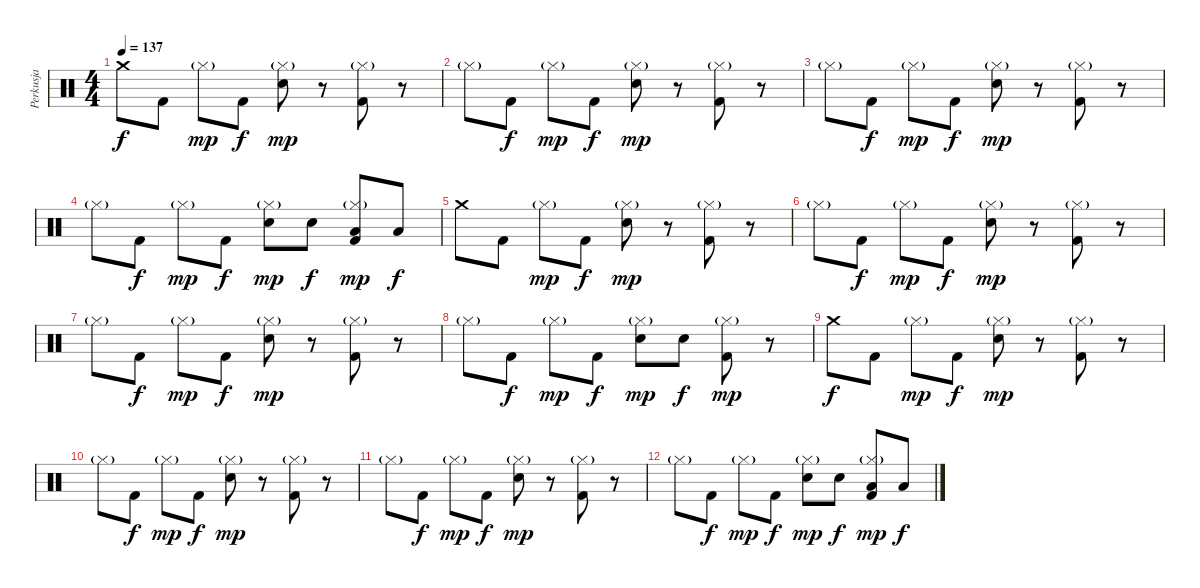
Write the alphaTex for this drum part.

\track ("Perkusja" "Perkusja") {instrument percussion}
\staff {score}
\articulation defaults
\ts (4 4)
\tempo 137
\clef neutral
\ks c "Crash medium (hit)".8{dy f} "Kick (hit) 2".8 "Hi-Hat (closed)"{g}.8{dy mp} "Kick (hit) 2".8{dy f}
("Hi-Hat (closed)"{g} "Snare (hit) 2").8{dy mp} r.8 ("Hi-Hat (closed)"{g} "Kick (hit) 2").8 r.8 |
"Hi-Hat (closed)"{g}.8 "Kick (hit) 2".8{dy f} "Hi-Hat (closed)"{g}.8{dy mp} "Kick (hit) 2".8{dy f} ("Hi-Hat (closed)"{g} "Snare (hit) 2").8{dy mp} r.8 ("Hi-Hat (closed)"{g} "Kick (hit) 2").8 r.8 |
"Hi-Hat (closed)"{g}.8 "Kick (hit) 2".8{dy f} "Hi-Hat (closed)"{g}.8{dy mp} "Kick (hit) 2".8{dy f} ("Hi-Hat (closed)"{g} "Snare (hit) 2").8{dy mp} r.8 ("Hi-Hat (closed)"{g} "Kick (hit) 2").8 r.8 |
"Hi-Hat (closed)"{g}.8 "Kick (hit) 2".8{dy f} "Hi-Hat (closed)"{g}.8{dy mp} "Kick (hit) 2".8{dy f} ("Hi-Hat (closed)"{g} "Snare (hit) 2").8{dy mp} "Snare (hit) 2".8{dy f} ("Hi-Hat (closed)"{g} "Low Tom (hit)" "Kick (hit) 2").8{dy mp} "Low Tom (hit)".8{dy f} |
"Crash medium (hit)".8 "Kick (hit) 2".8 "Hi-Hat (closed)"{g}.8{dy mp} "Kick (hit) 2".8{dy f} ("Hi-Hat (closed)"{g} "Snare (hit) 2").8{dy mp} r.8 ("Hi-Hat (closed)"{g} "Kick (hit) 2").8 r.8 |
"Hi-Hat (closed)"{g}.8 "Kick (hit) 2".8{dy f} "Hi-Hat (closed)"{g}.8{dy mp} "Kick (hit) 2".8{dy f} ("Hi-Hat (closed)"{g} "Snare (hit) 2").8{dy mp} r.8 ("Hi-Hat (closed)"{g} "Kick (hit) 2").8 r.8 |
"Hi-Hat (closed)"{g}.8 "Kick (hit) 2".8{dy f} "Hi-Hat (closed)"{g}.8{dy mp} "Kick (hit) 2".8{dy f} ("Hi-Hat (closed)"{g} "Snare (hit) 2").8{dy mp} r.8 ("Hi-Hat (closed)"{g} "Kick (hit) 2").8 r.8 |
"Hi-Hat (closed)"{g}.8 "Kick (hit) 2".8{dy f} "Hi-Hat (closed)"{g}.8{dy mp} "Kick (hit) 2".8{dy f} ("Hi-Hat (closed)"{g} "Snare (hit) 2").8{dy mp} "Snare (hit) 2".8{dy f} ("Hi-Hat (closed)"{g} "Kick (hit) 2").8{dy mp} r.8 |
"Crash medium (hit)".8{dy f} "Kick (hit) 2".8 "Hi-Hat (closed)"{g}.8{dy mp} "Kick (hit) 2".8{dy f} ("Hi-Hat (closed)"{g} "Snare (hit) 2").8{dy mp} r.8 ("Hi-Hat (closed)"{g} "Kick (hit) 2").8 r.8 |
"Hi-Hat (closed)"{g}.8 "Kick (hit) 2".8{dy f} "Hi-Hat (closed)"{g}.8{dy mp} "Kick (hit) 2".8{dy f} ("Hi-Hat (closed)"{g} "Snare (hit) 2").8{dy mp} r.8 ("Hi-Hat (closed)"{g} "Kick (hit) 2").8 r.8 |
"Hi-Hat (closed)"{g}.8 "Kick (hit) 2".8{dy f} "Hi-Hat (closed)"{g}.8{dy mp} "Kick (hit) 2".8{dy f} ("Hi-Hat (closed)"{g} "Snare (hit) 2").8{dy mp} r.8 ("Hi-Hat (closed)"{g} "Kick (hit) 2").8 r.8 |
"Hi-Hat (closed)"{g}.8 "Kick (hit) 2".8{dy f} "Hi-Hat (closed)"{g}.8{dy mp} "Kick (hit) 2".8{dy f} ("Hi-Hat (closed)"{g} "Snare (hit) 2").8{dy mp} "Snare (hit) 2".8{dy f} ("Hi-Hat (closed)"{g} "Low Tom (hit)" "Kick (hit) 2").8{dy mp} "Low Tom (hit)".8{dy f}
